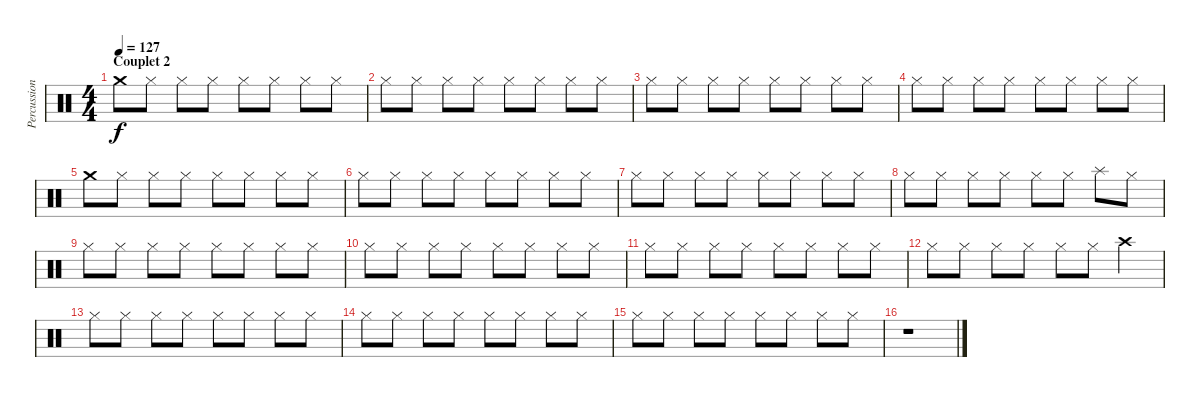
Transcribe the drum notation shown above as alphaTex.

\track ("Percussions" "Percussion") {instrument percussion}
\staff {score}
\articulation defaults
\ts (4 4)
\section ("" "Couplet 2")
\tempo 127
\clef neutral
\ks c "Crash medium (hit)".8{dy f} "Hi-Hat (closed)".8 "Hi-Hat (closed)".8 "Hi-Hat (closed)".8 "Hi-Hat (closed)".8 "Hi-Hat (closed)".8 "Hi-Hat (closed)".8 "Hi-Hat (closed)".8
|
"Hi-Hat (closed)".8 "Hi-Hat (closed)".8 "Hi-Hat (closed)".8 "Hi-Hat (closed)".8 "Hi-Hat (closed)".8 "Hi-Hat (closed)".8 "Hi-Hat (closed)".8 "Hi-Hat (closed)".8 |
"Hi-Hat (closed)".8 "Hi-Hat (closed)".8 "Hi-Hat (closed)".8 "Hi-Hat (closed)".8 "Hi-Hat (closed)".8 "Hi-Hat (closed)".8 "Hi-Hat (closed)".8 "Hi-Hat (closed)".8 |
"Hi-Hat (closed)".8 "Hi-Hat (closed)".8 "Hi-Hat (closed)".8 "Hi-Hat (closed)".8 "Hi-Hat (closed)".8 "Hi-Hat (closed)".8 "Hi-Hat (closed)".8 "Hi-Hat (closed)".8 |
"Crash medium (hit)".8 "Hi-Hat (closed)".8 "Hi-Hat (closed)".8 "Hi-Hat (closed)".8 "Hi-Hat (closed)".8 "Hi-Hat (closed)".8 "Hi-Hat (closed)".8 "Hi-Hat (closed)".8 |
"Hi-Hat (closed)".8 "Hi-Hat (closed)".8 "Hi-Hat (closed)".8 "Hi-Hat (closed)".8 "Hi-Hat (closed)".8 "Hi-Hat (closed)".8 "Hi-Hat (closed)".8 "Hi-Hat (closed)".8 |
"Hi-Hat (closed)".8 "Hi-Hat (closed)".8 "Hi-Hat (closed)".8 "Hi-Hat (closed)".8 "Hi-Hat (closed)".8 "Hi-Hat (closed)".8 "Hi-Hat (closed)".8 "Hi-Hat (closed)".8 |
"Hi-Hat (closed)".8 "Hi-Hat (closed)".8 "Hi-Hat (closed)".8 "Hi-Hat (closed)".8 "Hi-Hat (closed)".8 "Hi-Hat (closed)".8 "Splash (hit)".8 "Hi-Hat (closed)".8 |
"Hi-Hat (closed)".8 "Hi-Hat (closed)".8 "Hi-Hat (closed)".8 "Hi-Hat (closed)".8 "Hi-Hat (closed)".8 "Hi-Hat (closed)".8 "Hi-Hat (closed)".8 "Hi-Hat (closed)".8 |
"Hi-Hat (closed)".8 "Hi-Hat (closed)".8 "Hi-Hat (closed)".8 "Hi-Hat (closed)".8 "Hi-Hat (closed)".8 "Hi-Hat (closed)".8 "Hi-Hat (closed)".8 "Hi-Hat (closed)".8 |
"Hi-Hat (closed)".8 "Hi-Hat (closed)".8 "Hi-Hat (closed)".8 "Hi-Hat (closed)".8 "Hi-Hat (closed)".8 "Hi-Hat (closed)".8 "Hi-Hat (closed)".8 "Hi-Hat (closed)".8 |
"Hi-Hat (closed)".8 "Hi-Hat (closed)".8 "Hi-Hat (closed)".8 "Hi-Hat (closed)".8 "Hi-Hat (closed)".8 "Hi-Hat (closed)".8 "Crash high (hit)".4 |
"Hi-Hat (closed)".8 "Hi-Hat (closed)".8 "Hi-Hat (closed)".8 "Hi-Hat (closed)".8 "Hi-Hat (closed)".8 "Hi-Hat (closed)".8 "Hi-Hat (closed)".8 "Hi-Hat (closed)".8 |
"Hi-Hat (closed)".8 "Hi-Hat (closed)".8 "Hi-Hat (closed)".8 "Hi-Hat (closed)".8 "Hi-Hat (closed)".8 "Hi-Hat (closed)".8 "Hi-Hat (closed)".8 "Hi-Hat (closed)".8 |
"Hi-Hat (closed)".8 "Hi-Hat (closed)".8 "Hi-Hat (closed)".8 "Hi-Hat (closed)".8 "Hi-Hat (closed)".8 "Hi-Hat (closed)".8 "Hi-Hat (closed)".8 "Hi-Hat (closed)".8 |
r.1
